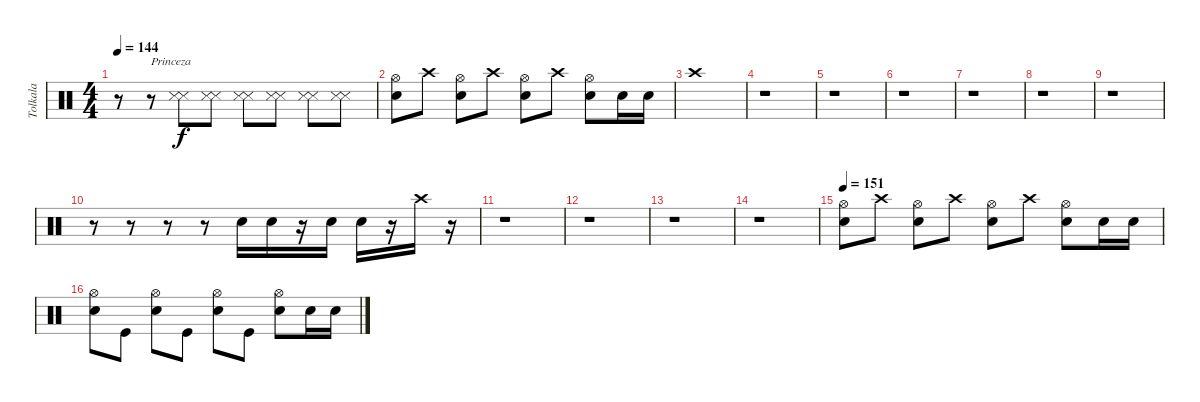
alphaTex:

\track ("Tolkala" "Tolkala") {instrument percussion}
\staff {score}
\articulation defaults
\ts (4 4)
\tempo 144
\clef neutral
\ks c
r.8{dy f} r.8{txt "Princeza"} ("Metronome (hit)" "Metronome (hit)").8 ("Metronome (hit)" "Metronome (hit)").8 ("Metronome (hit)" "Metronome (hit)").8 ("Metronome (hit)" "Metronome (hit)").8 ("Metronome (hit)" "Metronome (hit)").8 ("Metronome (hit)" "Metronome (hit)").8 |
("Electric Snare (hit)" "Hi-Hat (open)").8 "Crash high (hit)".8 ("Electric Snare (hit)" "Hi-Hat (open)").8 "Crash high (hit)".8 ("Electric Snare (hit)" "Hi-Hat (open)").8 "Crash high (hit)".8 ("Electric Snare (hit)" "Hi-Hat (open)").8 "Electric Snare (hit)".16 "Electric Snare (hit)".16 |
"Crash high (hit)".1 |
r.1 |
r.1 |
r.1 |
r.1 |
r.1 |
r.1 |
r.8 r.8 r.8 r.8 "Electric Snare (hit)".16 "Electric Snare (hit)".16 r.16 "Electric Snare (hit)".16 "Electric Snare (hit)".16 r.16 "Crash high (hit)".16 r.16 |
r.1 |
r.1 |
r.1 |
r.1 |
\tempo 151
("Electric Snare (hit)" "Hi-Hat (open)").8 "Crash high (hit)".8 ("Electric Snare (hit)" "Hi-Hat (open)").8 "Crash high (hit)".8 ("Electric Snare (hit)" "Hi-Hat (open)").8 "Crash high (hit)".8 ("Electric Snare (hit)" "Hi-Hat (open)").8 "Electric Snare (hit)".16 "Electric Snare (hit)".16 |
("Electric Snare (hit)" "Hi-Hat (open)").8 "Kick (hit)".8 ("Electric Snare (hit)" "Hi-Hat (open)").8 "Kick (hit)".8 ("Electric Snare (hit)" "Hi-Hat (open)").8 "Kick (hit)".8 ("Electric Snare (hit)" "Hi-Hat (open)").8 "Electric Snare (hit)".16 "Electric Snare (hit)".16
